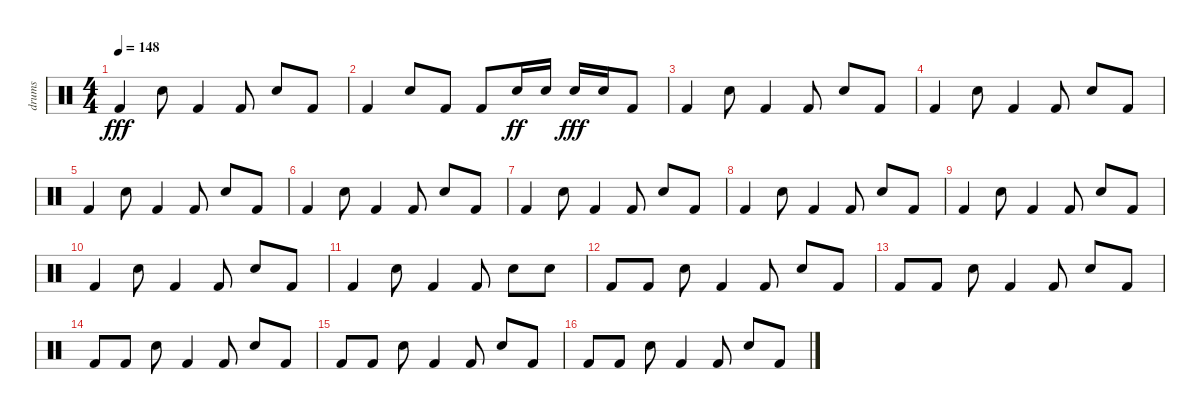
\track ("drums" "drums") {instrument percussion}
\staff {score}
\articulation defaults
\ts (4 4)
\tempo 148
\clef neutral
\ks c "Kick (hit) 2".4{dy fff} "Electric Snare (hit)".8 "Kick (hit) 2".4 "Kick (hit) 2".8 "Electric Snare (hit)".8 "Kick (hit) 2".8
|
"Kick (hit) 2".4 "Electric Snare (hit)".8 "Kick (hit) 2".8 "Kick (hit) 2".8 "Electric Snare (hit)".16{dy ff} "Electric Snare (hit)".16 "Electric Snare (hit)".16{dy fff} "Electric Snare (hit)".16 "Kick (hit) 2".8 |
"Kick (hit) 2".4 "Electric Snare (hit)".8 "Kick (hit) 2".4 "Kick (hit) 2".8 "Electric Snare (hit)".8 "Kick (hit) 2".8 |
"Kick (hit) 2".4 "Electric Snare (hit)".8 "Kick (hit) 2".4 "Kick (hit) 2".8 "Electric Snare (hit)".8 "Kick (hit) 2".8 |
"Kick (hit) 2".4 "Electric Snare (hit)".8 "Kick (hit) 2".4 "Kick (hit) 2".8 "Electric Snare (hit)".8 "Kick (hit) 2".8 |
"Kick (hit) 2".4 "Electric Snare (hit)".8 "Kick (hit) 2".4 "Kick (hit) 2".8 "Electric Snare (hit)".8 "Kick (hit) 2".8 |
"Kick (hit) 2".4 "Electric Snare (hit)".8 "Kick (hit) 2".4 "Kick (hit) 2".8 "Electric Snare (hit)".8 "Kick (hit) 2".8 |
"Kick (hit) 2".4 "Electric Snare (hit)".8 "Kick (hit) 2".4 "Kick (hit) 2".8 "Electric Snare (hit)".8 "Kick (hit) 2".8 |
"Kick (hit) 2".4 "Electric Snare (hit)".8 "Kick (hit) 2".4 "Kick (hit) 2".8 "Electric Snare (hit)".8 "Kick (hit) 2".8 |
"Kick (hit) 2".4 "Electric Snare (hit)".8 "Kick (hit) 2".4 "Kick (hit) 2".8 "Electric Snare (hit)".8 "Kick (hit) 2".8 |
"Kick (hit) 2".4 "Electric Snare (hit)".8 "Kick (hit) 2".4 "Kick (hit) 2".8 "Electric Snare (hit)".8 "Electric Snare (hit)".8 |
"Kick (hit) 2".8 "Kick (hit) 2".8 "Electric Snare (hit)".8 "Kick (hit) 2".4 "Kick (hit) 2".8 "Electric Snare (hit)".8 "Kick (hit) 2".8 |
"Kick (hit) 2".8 "Kick (hit) 2".8 "Electric Snare (hit)".8 "Kick (hit) 2".4 "Kick (hit) 2".8 "Electric Snare (hit)".8 "Kick (hit) 2".8 |
"Kick (hit) 2".8 "Kick (hit) 2".8 "Electric Snare (hit)".8 "Kick (hit) 2".4 "Kick (hit) 2".8 "Electric Snare (hit)".8 "Kick (hit) 2".8 |
"Kick (hit) 2".8 "Kick (hit) 2".8 "Electric Snare (hit)".8 "Kick (hit) 2".4 "Kick (hit) 2".8 "Electric Snare (hit)".8 "Kick (hit) 2".8 |
"Kick (hit) 2".8 "Kick (hit) 2".8 "Electric Snare (hit)".8 "Kick (hit) 2".4 "Kick (hit) 2".8 "Electric Snare (hit)".8 "Kick (hit) 2".8
